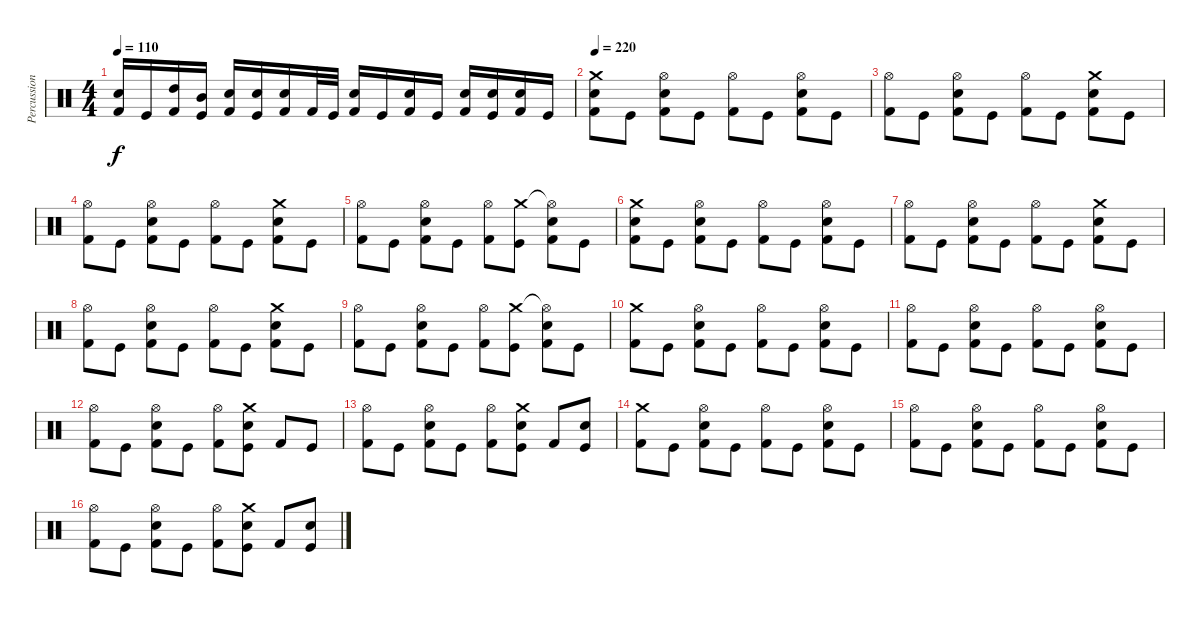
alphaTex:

\track ("Percussions" "Percussion") {instrument percussion}
\staff {score}
\articulation defaults
\ts (4 4)
\tempo 110
\clef neutral
\ks c
("Electric Snare (hit)" "Kick (hit) 2").16{dy f} "Kick (hit)".16 ("High Tom (hit)" "Kick (hit) 2").16 ("Mid Tom (hit)" "Kick (hit)").16 ("Electric Snare (hit)" "Kick (hit) 2").16 ("Electric Snare (hit)" "Kick (hit)").16 ("Electric Snare (hit)" "Kick (hit) 2").16 "Kick (hit) 2".32 "Kick (hit)".32 ("Electric Snare (hit)" "Kick (hit) 2").16 "Kick (hit)".16 ("Electric Snare (hit)" "Kick (hit) 2").16 "Kick (hit)".16 ("Electric Snare (hit)" "Kick (hit) 2").16 ("Electric Snare (hit)" "Kick (hit)").16 ("Electric Snare (hit)" "Kick (hit) 2").16 "Kick (hit)".16 |
\tempo 220
("Crash medium (hit)" "Electric Snare (hit)" "Kick (hit) 2").8 "Kick (hit)".8 ("Hi-Hat (open)" "Electric Snare (hit)" "Kick (hit) 2").8 "Kick (hit)".8 ("Hi-Hat (open)" "Kick (hit) 2").8 "Kick (hit)".8 ("Hi-Hat (open)" "Electric Snare (hit)" "Kick (hit) 2").8 "Kick (hit)".8 |
("Hi-Hat (open)" "Kick (hit) 2").8 "Kick (hit)".8 ("Hi-Hat (open)" "Electric Snare (hit)" "Kick (hit) 2").8 "Kick (hit)".8 ("Hi-Hat (open)" "Kick (hit) 2").8 "Kick (hit)".8 ("Crash medium (hit)" "Electric Snare (hit)" "Kick (hit) 2").8 "Kick (hit)".8 |
("Hi-Hat (open)" "Kick (hit) 2").8 "Kick (hit)".8 ("Hi-Hat (open)" "Electric Snare (hit)" "Kick (hit) 2").8 "Kick (hit)".8 ("Hi-Hat (open)" "Kick (hit) 2").8 "Kick (hit)".8 ("Crash medium (hit)" "Electric Snare (hit)" "Kick (hit) 2").8 "Kick (hit)".8 |
("Hi-Hat (open)" "Kick (hit) 2").8 "Kick (hit)".8 ("Hi-Hat (open)" "Electric Snare (hit)" "Kick (hit) 2").8 "Kick (hit)".8 ("Hi-Hat (open)" "Kick (hit) 2").8 ("Crash medium (hit)" "Kick (hit)").8 ("Hi-Hat (open)"{t} "Electric Snare (hit)" "Kick (hit) 2").8 "Kick (hit)".8 |
("Crash medium (hit)" "Electric Snare (hit)" "Kick (hit) 2").8 "Kick (hit)".8 ("Hi-Hat (open)" "Electric Snare (hit)" "Kick (hit) 2").8 "Kick (hit)".8 ("Hi-Hat (open)" "Kick (hit) 2").8 "Kick (hit)".8 ("Hi-Hat (open)" "Electric Snare (hit)" "Kick (hit) 2").8 "Kick (hit)".8 |
("Hi-Hat (open)" "Kick (hit) 2").8 "Kick (hit)".8 ("Hi-Hat (open)" "Electric Snare (hit)" "Kick (hit) 2").8 "Kick (hit)".8 ("Hi-Hat (open)" "Kick (hit) 2").8 "Kick (hit)".8 ("Crash medium (hit)" "Electric Snare (hit)" "Kick (hit) 2").8 "Kick (hit)".8 |
("Hi-Hat (open)" "Kick (hit) 2").8 "Kick (hit)".8 ("Hi-Hat (open)" "Electric Snare (hit)" "Kick (hit) 2").8 "Kick (hit)".8 ("Hi-Hat (open)" "Kick (hit) 2").8 "Kick (hit)".8 ("Crash medium (hit)" "Electric Snare (hit)" "Kick (hit) 2").8 "Kick (hit)".8 |
("Hi-Hat (open)" "Kick (hit) 2").8 "Kick (hit)".8 ("Hi-Hat (open)" "Electric Snare (hit)" "Kick (hit) 2").8 "Kick (hit)".8 ("Hi-Hat (open)" "Kick (hit) 2").8 ("Crash medium (hit)" "Kick (hit)").8 ("Hi-Hat (open)"{t} "Electric Snare (hit)" "Kick (hit) 2").8 "Kick (hit)".8 |
("Crash medium (hit)" "Kick (hit) 2").8 "Kick (hit)".8 ("Hi-Hat (open)" "Electric Snare (hit)" "Kick (hit) 2").8 "Kick (hit)".8 ("Hi-Hat (open)" "Kick (hit) 2").8 "Kick (hit)".8 ("Hi-Hat (open)" "Electric Snare (hit)" "Kick (hit) 2").8 "Kick (hit)".8 |
("Hi-Hat (open)" "Kick (hit) 2").8 "Kick (hit)".8 ("Hi-Hat (open)" "Electric Snare (hit)" "Kick (hit) 2").8 "Kick (hit)".8 ("Hi-Hat (open)" "Kick (hit) 2").8 "Kick (hit)".8 ("Hi-Hat (open)" "Electric Snare (hit)" "Kick (hit) 2").8 "Kick (hit)".8 |
("Hi-Hat (open)" "Kick (hit) 2").8 "Kick (hit)".8 ("Hi-Hat (open)" "Electric Snare (hit)" "Kick (hit) 2").8 "Kick (hit)".8 ("Hi-Hat (open)" "Kick (hit) 2").8 ("Crash medium (hit)" "Electric Snare (hit)" "Kick (hit)").8 "Kick (hit) 2".8 "Kick (hit)".8 |
("Hi-Hat (open)" "Kick (hit) 2").8 "Kick (hit)".8 ("Hi-Hat (open)" "Electric Snare (hit)" "Kick (hit) 2").8 "Kick (hit)".8 ("Hi-Hat (open)" "Kick (hit) 2").8 ("Crash medium (hit)" "Electric Snare (hit)" "Kick (hit)").8 "Kick (hit) 2".8 ("Electric Snare (hit)" "Kick (hit)").8 |
("Crash medium (hit)" "Kick (hit) 2").8 "Kick (hit)".8 ("Hi-Hat (open)" "Electric Snare (hit)" "Kick (hit) 2").8 "Kick (hit)".8 ("Hi-Hat (open)" "Kick (hit) 2").8 "Kick (hit)".8 ("Hi-Hat (open)" "Electric Snare (hit)" "Kick (hit) 2").8 "Kick (hit)".8 |
("Hi-Hat (open)" "Kick (hit) 2").8 "Kick (hit)".8 ("Hi-Hat (open)" "Electric Snare (hit)" "Kick (hit) 2").8 "Kick (hit)".8 ("Hi-Hat (open)" "Kick (hit) 2").8 "Kick (hit)".8 ("Hi-Hat (open)" "Electric Snare (hit)" "Kick (hit) 2").8 "Kick (hit)".8 |
("Hi-Hat (open)" "Kick (hit) 2").8 "Kick (hit)".8 ("Hi-Hat (open)" "Electric Snare (hit)" "Kick (hit) 2").8 "Kick (hit)".8 ("Hi-Hat (open)" "Kick (hit) 2").8 ("Crash medium (hit)" "Electric Snare (hit)" "Kick (hit)").8 "Kick (hit) 2".8 ("Electric Snare (hit)" "Kick (hit)").8
